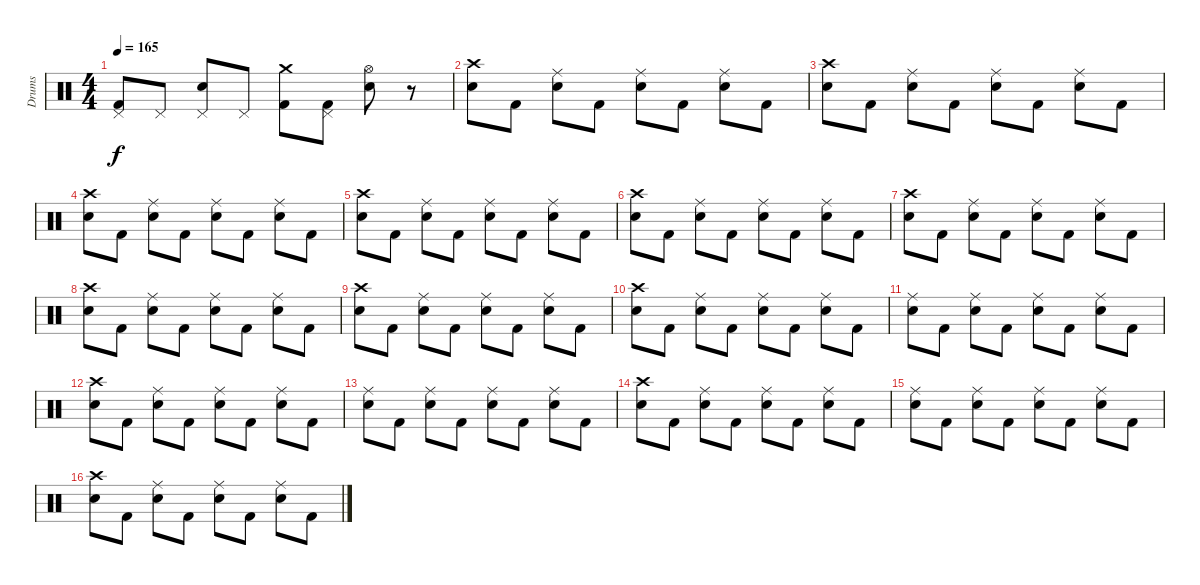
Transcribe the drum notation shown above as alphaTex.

\track ("Drums" "Drums") {instrument percussion}
\staff {score}
\articulation defaults
\ts (4 4)
\tempo 165
\clef neutral
\ks c
("Pedal Hi-Hat (hit)" "Kick (hit) 2").8{dy f} "Pedal Hi-Hat (hit)".8 ("Pedal Hi-Hat (hit)" "Snare (hit) 2").8 "Pedal Hi-Hat (hit)".8 ("Crash medium (hit)" "Kick (hit) 2").8 ("Pedal Hi-Hat (hit)" "Kick (hit) 2").8 ("Hi-Hat (open)" "Snare (hit) 2").8 r.8 |
("Crash high (hit)" "Snare (hit) 2").8 "Kick (hit) 2".8 ("Ride (middle)" "Snare (hit) 2").8 "Kick (hit) 2".8 ("Ride (middle)" "Snare (hit) 2").8 "Kick (hit) 2".8 ("Ride (middle)" "Snare (hit) 2").8 "Kick (hit) 2".8 |
("Crash high (hit)" "Snare (hit) 2").8 "Kick (hit) 2".8 ("Ride (middle)" "Snare (hit) 2").8 "Kick (hit) 2".8 ("Ride (middle)" "Snare (hit) 2").8 "Kick (hit) 2".8 ("Ride (middle)" "Snare (hit) 2").8 "Kick (hit) 2".8 |
("Crash high (hit)" "Snare (hit) 2").8 "Kick (hit) 2".8 ("Ride (middle)" "Snare (hit) 2").8 "Kick (hit) 2".8 ("Ride (middle)" "Snare (hit) 2").8 "Kick (hit) 2".8 ("Ride (middle)" "Snare (hit) 2").8 "Kick (hit) 2".8 |
("Crash high (hit)" "Snare (hit) 2").8 "Kick (hit) 2".8 ("Ride (middle)" "Snare (hit) 2").8 "Kick (hit) 2".8 ("Ride (middle)" "Snare (hit) 2").8 "Kick (hit) 2".8 ("Ride (middle)" "Snare (hit) 2").8 "Kick (hit) 2".8 |
("Crash high (hit)" "Snare (hit) 2").8 "Kick (hit) 2".8 ("Ride (middle)" "Snare (hit) 2").8 "Kick (hit) 2".8 ("Ride (middle)" "Snare (hit) 2").8 "Kick (hit) 2".8 ("Ride (middle)" "Snare (hit) 2").8 "Kick (hit) 2".8 |
("Crash high (hit)" "Snare (hit) 2").8 "Kick (hit) 2".8 ("Ride (middle)" "Snare (hit) 2").8 "Kick (hit) 2".8 ("Ride (middle)" "Snare (hit) 2").8 "Kick (hit) 2".8 ("Ride (middle)" "Snare (hit) 2").8 "Kick (hit) 2".8 |
("Crash high (hit)" "Snare (hit) 2").8 "Kick (hit) 2".8 ("Ride (middle)" "Snare (hit) 2").8 "Kick (hit) 2".8 ("Ride (middle)" "Snare (hit) 2").8 "Kick (hit) 2".8 ("Ride (middle)" "Snare (hit) 2").8 "Kick (hit) 2".8 |
("Crash high (hit)" "Snare (hit) 2").8 "Kick (hit) 2".8 ("Ride (middle)" "Snare (hit) 2").8 "Kick (hit) 2".8 ("Ride (middle)" "Snare (hit) 2").8 "Kick (hit) 2".8 ("Ride (middle)" "Snare (hit) 2").8 "Kick (hit) 2".8 |
("Crash high (hit)" "Snare (hit) 2").8 "Kick (hit) 2".8 ("Ride (middle)" "Snare (hit) 2").8 "Kick (hit) 2".8 ("Ride (middle)" "Snare (hit) 2").8 "Kick (hit) 2".8 ("Ride (middle)" "Snare (hit) 2").8 "Kick (hit) 2".8 |
("Ride (middle)" "Snare (hit) 2").8 "Kick (hit) 2".8 ("Ride (middle)" "Snare (hit) 2").8 "Kick (hit) 2".8 ("Ride (middle)" "Snare (hit) 2").8 "Kick (hit) 2".8 ("Ride (middle)" "Snare (hit) 2").8 "Kick (hit) 2".8 |
("Crash high (hit)" "Snare (hit) 2").8 "Kick (hit) 2".8 ("Ride (middle)" "Snare (hit) 2").8 "Kick (hit) 2".8 ("Ride (middle)" "Snare (hit) 2").8 "Kick (hit) 2".8 ("Ride (middle)" "Snare (hit) 2").8 "Kick (hit) 2".8 |
("Ride (middle)" "Snare (hit) 2").8 "Kick (hit) 2".8 ("Ride (middle)" "Snare (hit) 2").8 "Kick (hit) 2".8 ("Ride (middle)" "Snare (hit) 2").8 "Kick (hit) 2".8 ("Ride (middle)" "Snare (hit) 2").8 "Kick (hit) 2".8 |
("Crash high (hit)" "Snare (hit) 2").8 "Kick (hit) 2".8 ("Ride (middle)" "Snare (hit) 2").8 "Kick (hit) 2".8 ("Ride (middle)" "Snare (hit) 2").8 "Kick (hit) 2".8 ("Ride (middle)" "Snare (hit) 2").8 "Kick (hit) 2".8 |
("Ride (middle)" "Snare (hit) 2").8 "Kick (hit) 2".8 ("Ride (middle)" "Snare (hit) 2").8 "Kick (hit) 2".8 ("Ride (middle)" "Snare (hit) 2").8 "Kick (hit) 2".8 ("Ride (middle)" "Snare (hit) 2").8 "Kick (hit) 2".8 |
("Crash high (hit)" "Snare (hit) 2").8 "Kick (hit) 2".8 ("Ride (middle)" "Snare (hit) 2").8 "Kick (hit) 2".8 ("Ride (middle)" "Snare (hit) 2").8 "Kick (hit) 2".8 ("Ride (middle)" "Snare (hit) 2").8 "Kick (hit) 2".8
